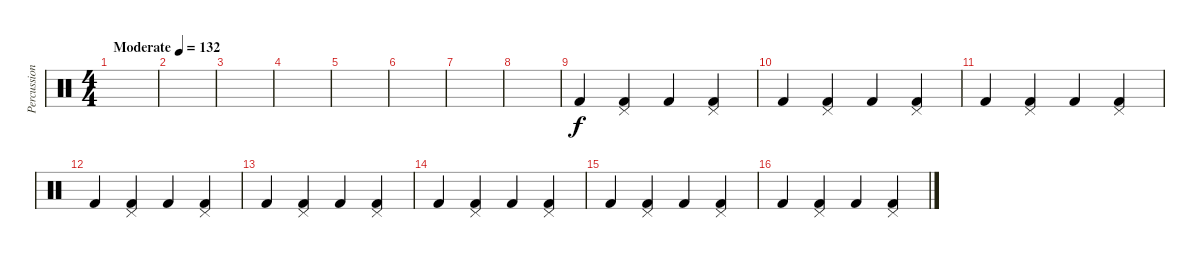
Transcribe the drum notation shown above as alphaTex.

\track ("Percussion" "Percussion") {instrument percussion}
\staff {score}
\articulation defaults
\ts (4 4)
\tempo (132 "Moderate")
\clef neutral
\ks c
|
|
|
|
|
|
|
|
"Kick (hit) 2".4 ("Kick (hit) 2" "Pedal Hi-Hat (hit)").4 "Kick (hit) 2".4 ("Kick (hit) 2" "Pedal Hi-Hat (hit)").4 |
"Kick (hit) 2".4 ("Kick (hit) 2" "Pedal Hi-Hat (hit)").4 "Kick (hit) 2".4 ("Kick (hit) 2" "Pedal Hi-Hat (hit)").4 |
"Kick (hit) 2".4 ("Kick (hit) 2" "Pedal Hi-Hat (hit)").4 "Kick (hit) 2".4 ("Kick (hit) 2" "Pedal Hi-Hat (hit)").4 |
"Kick (hit) 2".4 ("Kick (hit) 2" "Pedal Hi-Hat (hit)").4 "Kick (hit) 2".4 ("Kick (hit) 2" "Pedal Hi-Hat (hit)").4 |
"Kick (hit) 2".4 ("Kick (hit) 2" "Pedal Hi-Hat (hit)").4 "Kick (hit) 2".4 ("Kick (hit) 2" "Pedal Hi-Hat (hit)").4 |
"Kick (hit) 2".4 ("Kick (hit) 2" "Pedal Hi-Hat (hit)").4 "Kick (hit) 2".4 ("Kick (hit) 2" "Pedal Hi-Hat (hit)").4 |
"Kick (hit) 2".4 ("Kick (hit) 2" "Pedal Hi-Hat (hit)").4 "Kick (hit) 2".4 ("Kick (hit) 2" "Pedal Hi-Hat (hit)").4 |
"Kick (hit) 2".4 ("Kick (hit) 2" "Pedal Hi-Hat (hit)").4 "Kick (hit) 2".4 ("Kick (hit) 2" "Pedal Hi-Hat (hit)").4
